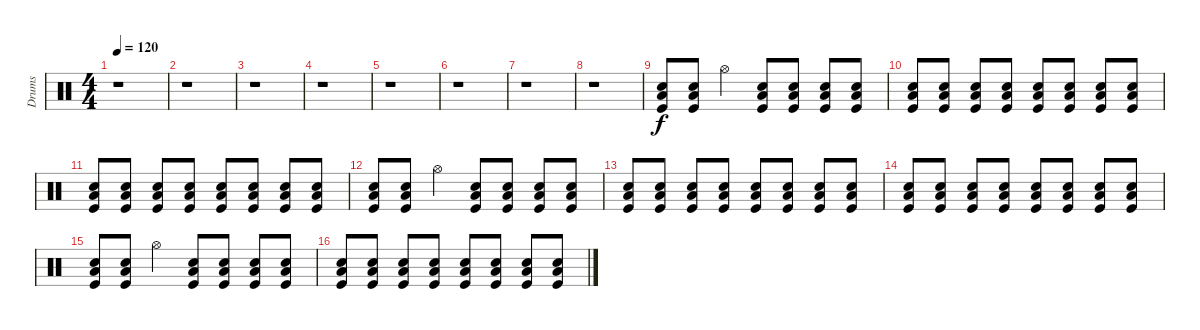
\track ("Drums" "Drums") {instrument percussion}
\staff {score}
\articulation defaults
\ts (4 4)
\tempo 120
\clef neutral
\ks c
r.1{dy f} |
r.1 |
r.1 |
r.1 |
r.1 |
r.1 |
r.1 |
r.1 |
("Electric Snare (hit)" "Low Floor Tom (hit)" "Kick (hit)").8{volume 2} ("Electric Snare (hit)" "Low Floor Tom (hit)" "Kick (hit)").8 "Hi-Hat (open)".4 ("Electric Snare (hit)" "Low Floor Tom (hit)" "Kick (hit)").8 ("Electric Snare (hit)" "Low Floor Tom (hit)" "Kick (hit)").8 ("Electric Snare (hit)" "Low Floor Tom (hit)" "Kick (hit)").8 ("Electric Snare (hit)" "Low Floor Tom (hit)" "Kick (hit)").8 |
("Electric Snare (hit)" "Low Floor Tom (hit)" "Kick (hit)").8{volume 4} ("Electric Snare (hit)" "Low Floor Tom (hit)" "Kick (hit)").8 ("Electric Snare (hit)" "Low Floor Tom (hit)" "Kick (hit)").8 ("Electric Snare (hit)" "Low Floor Tom (hit)" "Kick (hit)").8 ("Electric Snare (hit)" "Low Floor Tom (hit)" "Kick (hit)").8 ("Electric Snare (hit)" "Low Floor Tom (hit)" "Kick (hit)").8 ("Electric Snare (hit)" "Low Floor Tom (hit)" "Kick (hit)").8 ("Electric Snare (hit)" "Low Floor Tom (hit)" "Kick (hit)").8 |
("Electric Snare (hit)" "Low Floor Tom (hit)" "Kick (hit)").8{volume 6} ("Electric Snare (hit)" "Low Floor Tom (hit)" "Kick (hit)").8 ("Electric Snare (hit)" "Low Floor Tom (hit)" "Kick (hit)").8 ("Electric Snare (hit)" "Low Floor Tom (hit)" "Kick (hit)").8 ("Electric Snare (hit)" "Low Floor Tom (hit)" "Kick (hit)").8 ("Electric Snare (hit)" "Low Floor Tom (hit)" "Kick (hit)").8 ("Electric Snare (hit)" "Low Floor Tom (hit)" "Kick (hit)").8 ("Electric Snare (hit)" "Low Floor Tom (hit)" "Kick (hit)").8 |
("Electric Snare (hit)" "Low Floor Tom (hit)" "Kick (hit)").8{volume 8} ("Electric Snare (hit)" "Low Floor Tom (hit)" "Kick (hit)").8 "Hi-Hat (open)".4 ("Electric Snare (hit)" "Low Floor Tom (hit)" "Kick (hit)").8 ("Electric Snare (hit)" "Low Floor Tom (hit)" "Kick (hit)").8 ("Electric Snare (hit)" "Low Floor Tom (hit)" "Kick (hit)").8 ("Electric Snare (hit)" "Low Floor Tom (hit)" "Kick (hit)").8 |
("Electric Snare (hit)" "Low Floor Tom (hit)" "Kick (hit)").8{volume 10} ("Electric Snare (hit)" "Low Floor Tom (hit)" "Kick (hit)").8 ("Electric Snare (hit)" "Low Floor Tom (hit)" "Kick (hit)").8 ("Electric Snare (hit)" "Low Floor Tom (hit)" "Kick (hit)").8 ("Electric Snare (hit)" "Low Floor Tom (hit)" "Kick (hit)").8 ("Electric Snare (hit)" "Low Floor Tom (hit)" "Kick (hit)").8 ("Electric Snare (hit)" "Low Floor Tom (hit)" "Kick (hit)").8 ("Electric Snare (hit)" "Low Floor Tom (hit)" "Kick (hit)").8 |
("Electric Snare (hit)" "Low Floor Tom (hit)" "Kick (hit)").8{volume 11} ("Electric Snare (hit)" "Low Floor Tom (hit)" "Kick (hit)").8 ("Electric Snare (hit)" "Low Floor Tom (hit)" "Kick (hit)").8 ("Electric Snare (hit)" "Low Floor Tom (hit)" "Kick (hit)").8 ("Electric Snare (hit)" "Low Floor Tom (hit)" "Kick (hit)").8 ("Electric Snare (hit)" "Low Floor Tom (hit)" "Kick (hit)").8 ("Electric Snare (hit)" "Low Floor Tom (hit)" "Kick (hit)").8 ("Electric Snare (hit)" "Low Floor Tom (hit)" "Kick (hit)").8 |
("Electric Snare (hit)" "Low Floor Tom (hit)" "Kick (hit)").8{volume 12} ("Electric Snare (hit)" "Low Floor Tom (hit)" "Kick (hit)").8 "Hi-Hat (open)".4 ("Electric Snare (hit)" "Low Floor Tom (hit)" "Kick (hit)").8 ("Electric Snare (hit)" "Low Floor Tom (hit)" "Kick (hit)").8 ("Electric Snare (hit)" "Low Floor Tom (hit)" "Kick (hit)").8 ("Electric Snare (hit)" "Low Floor Tom (hit)" "Kick (hit)").8 |
("Electric Snare (hit)" "Low Floor Tom (hit)" "Kick (hit)").8{volume 12} ("Electric Snare (hit)" "Low Floor Tom (hit)" "Kick (hit)").8 ("Electric Snare (hit)" "Low Floor Tom (hit)" "Kick (hit)").8 ("Electric Snare (hit)" "Low Floor Tom (hit)" "Kick (hit)").8 ("Electric Snare (hit)" "Low Floor Tom (hit)" "Kick (hit)").8 ("Electric Snare (hit)" "Low Floor Tom (hit)" "Kick (hit)").8 ("Electric Snare (hit)" "Low Floor Tom (hit)" "Kick (hit)").8 ("Electric Snare (hit)" "Low Floor Tom (hit)" "Kick (hit)").8
